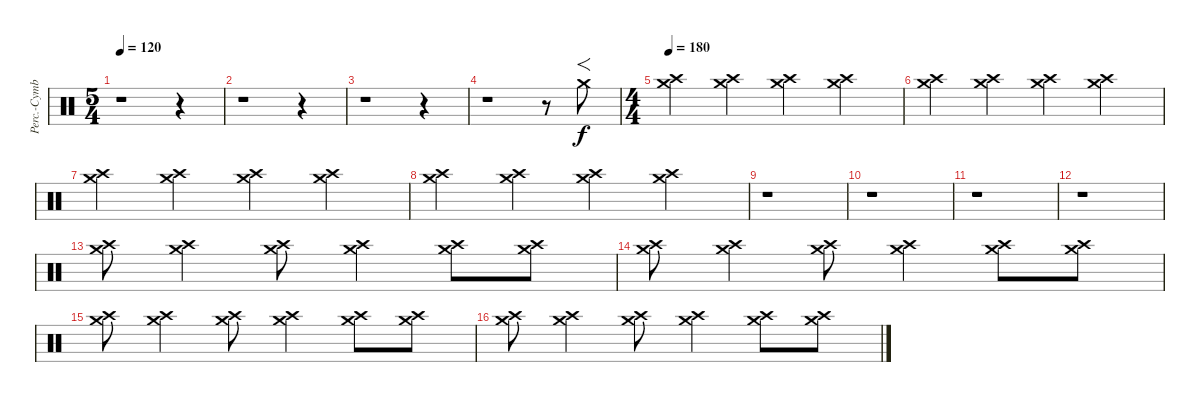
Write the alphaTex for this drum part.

\track ("Perc.-Cymbals 1" "Perc.-Cymb") {instrument percussion}
\staff {score}
\articulation defaults
\ts (5 4)
\tempo 120
\clef neutral
\ks c
r.1{dy f} r.4 |
r.1 r.4 |
r.1 r.4 |
r.1 r.8 "Crash medium (hit)".8{f} |
\ts (4 4)
\tempo 180
("Crash high (hit)" "Crash medium (hit)").4 ("Crash high (hit)" "Crash medium (hit)").4 ("Crash high (hit)" "Crash medium (hit)").4 ("Crash high (hit)" "Crash medium (hit)").4 |
("Crash high (hit)" "Crash medium (hit)").4 ("Crash high (hit)" "Crash medium (hit)").4 ("Crash high (hit)" "Crash medium (hit)").4 ("Crash high (hit)" "Crash medium (hit)").4 |
("Crash high (hit)" "Crash medium (hit)").4 ("Crash high (hit)" "Crash medium (hit)").4 ("Crash high (hit)" "Crash medium (hit)").4 ("Crash high (hit)" "Crash medium (hit)").4 |
("Crash high (hit)" "Crash medium (hit)").4 ("Crash high (hit)" "Crash medium (hit)").4 ("Crash high (hit)" "Crash medium (hit)").4 ("Crash high (hit)" "Crash medium (hit)").4 |
r.1 |
r.1 |
r.1 |
r.1 |
("Crash high (hit)" "Crash medium (hit)").8 ("Crash high (hit)" "Crash medium (hit)").4 ("Crash high (hit)" "Crash medium (hit)").8 ("Crash high (hit)" "Crash medium (hit)").4 ("Crash high (hit)" "Crash medium (hit)").8 ("Crash high (hit)" "Crash medium (hit)").8 |
("Crash high (hit)" "Crash medium (hit)").8 ("Crash high (hit)" "Crash medium (hit)").4 ("Crash high (hit)" "Crash medium (hit)").8 ("Crash high (hit)" "Crash medium (hit)").4 ("Crash high (hit)" "Crash medium (hit)").8 ("Crash high (hit)" "Crash medium (hit)").8 |
("Crash high (hit)" "Crash medium (hit)").8 ("Crash high (hit)" "Crash medium (hit)").4 ("Crash high (hit)" "Crash medium (hit)").8 ("Crash high (hit)" "Crash medium (hit)").4 ("Crash high (hit)" "Crash medium (hit)").8 ("Crash high (hit)" "Crash medium (hit)").8 |
("Crash high (hit)" "Crash medium (hit)").8 ("Crash high (hit)" "Crash medium (hit)").4 ("Crash high (hit)" "Crash medium (hit)").8 ("Crash high (hit)" "Crash medium (hit)").4 ("Crash high (hit)" "Crash medium (hit)").8 ("Crash high (hit)" "Crash medium (hit)").8
